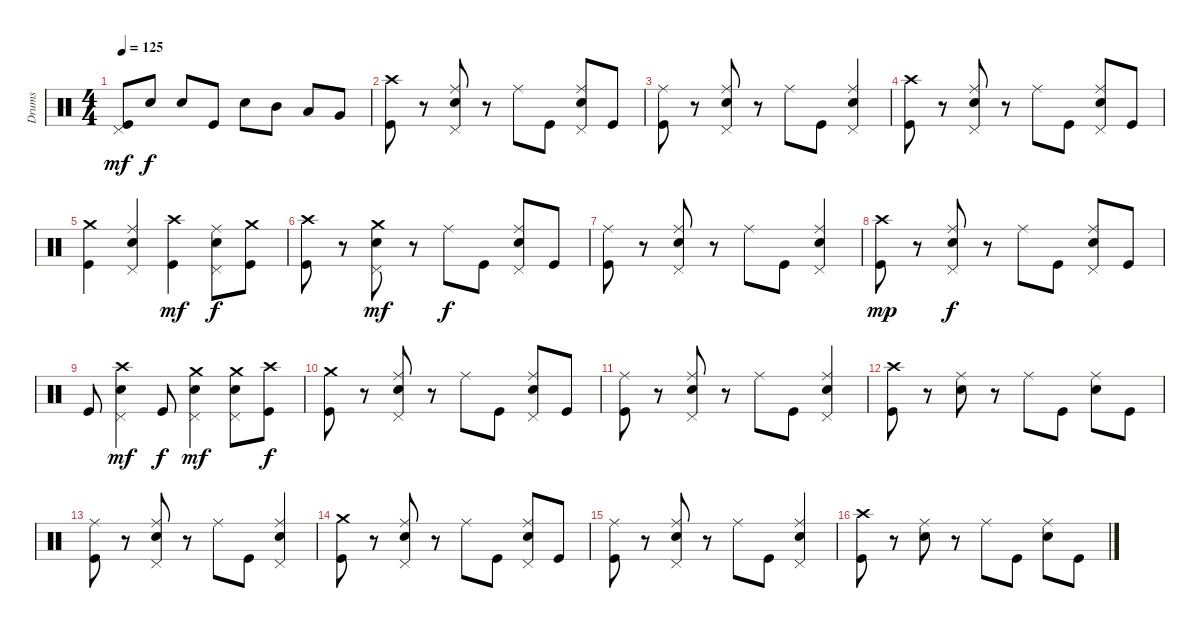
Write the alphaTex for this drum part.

\track ("Drums" "Drums") {instrument percussion}
\staff {score}
\articulation defaults
\ts (4 4)
\tempo 125
\clef neutral
\ks c
("Kick (hit)" "Pedal Hi-Hat (hit)").8{dy mf} "Snare (hit) 2".8{dy f} "Snare (hit) 2".8 "Kick (hit)".8 "Snare (hit) 2".8 "Mid Tom (hit)".8 "Low Tom (hit)".8 "Very Low Tom (hit)".8 |
("Crash high (hit)" "Kick (hit)").8 r.8 ("Snare (hit) 2" "Ride (middle)" "Pedal Hi-Hat (hit)").8 r.8 "Ride (middle)".8 "Kick (hit)".8 ("Snare (hit) 2" "Ride (middle)" "Pedal Hi-Hat (hit)").8 "Kick (hit)".8 |
("Kick (hit)" "Ride (middle)").8 r.8 ("Snare (hit) 2" "Ride (middle)" "Pedal Hi-Hat (hit)").8 r.8 "Ride (middle)".8 "Kick (hit)".8 ("Snare (hit) 2" "Ride (middle)" "Pedal Hi-Hat (hit)").4 |
("Crash high (hit)" "Kick (hit)").8 r.8 ("Snare (hit) 2" "Ride (middle)" "Pedal Hi-Hat (hit)").8 r.8 "Ride (middle)".8 "Kick (hit)".8 ("Snare (hit) 2" "Ride (middle)" "Pedal Hi-Hat (hit)").8 "Kick (hit)".8 |
("Kick (hit)" "Crash medium (hit)").4 ("Snare (hit) 2" "Pedal Hi-Hat (hit)" "Ride (middle)").4 ("Crash high (hit)" "Kick (hit)").4{dy mf} ("Snare (hit) 2" "Pedal Hi-Hat (hit)" "Ride (middle)").8{dy f} ("Crash medium (hit)" "Kick (hit)").8 |
("Crash high (hit)" "Kick (hit)").8 r.8 ("Snare (hit) 2" "Crash medium (hit)" "Pedal Hi-Hat (hit)").8{dy mf} r.8 "Ride (middle)".8{dy f} "Kick (hit)".8 ("Snare (hit) 2" "Ride (middle)" "Pedal Hi-Hat (hit)").8 "Kick (hit)".8 |
("Kick (hit)" "Ride (middle)").8 r.8 ("Snare (hit) 2" "Ride (middle)" "Pedal Hi-Hat (hit)").8 r.8 "Ride (middle)".8 "Kick (hit)".8 ("Snare (hit) 2" "Ride (middle)" "Pedal Hi-Hat (hit)").4 |
("Kick (hit)" "Crash high (hit)").8{dy mp} r.8 ("Snare (hit) 2" "Ride (middle)" "Pedal Hi-Hat (hit)").8{dy f} r.8 "Ride (middle)".8 "Kick (hit)".8 ("Snare (hit) 2" "Ride (middle)" "Pedal Hi-Hat (hit)").8 "Kick (hit)".8 |
"Kick (hit)".8 ("Snare (hit) 2" "Pedal Hi-Hat (hit)" "Crash high (hit)").4{dy mf} "Kick (hit)".8{dy f} ("Snare (hit) 2" "Pedal Hi-Hat (hit)" "Crash medium (hit)").4{dy mf} ("Snare (hit) 2" "Pedal Hi-Hat (hit)" "Crash medium (hit)").8 ("Kick (hit)" "Crash high (hit)").8{dy f} |
("Crash medium (hit)" "Kick (hit)").8 r.8 ("Snare (hit) 2" "Ride (middle)" "Pedal Hi-Hat (hit)").8 r.8 "Ride (middle)".8 "Kick (hit)".8 ("Snare (hit) 2" "Ride (middle)" "Pedal Hi-Hat (hit)").8 "Kick (hit)".8 |
("Kick (hit)" "Ride (middle)").8 r.8 ("Snare (hit) 2" "Ride (middle)" "Pedal Hi-Hat (hit)").8 r.8 "Ride (middle)".8 "Kick (hit)".8 ("Snare (hit) 2" "Ride (middle)" "Pedal Hi-Hat (hit)").4 |
("Crash high (hit)" "Kick (hit)").8 r.8 ("Snare (hit) 2" "Ride (middle)").8 r.8 "Ride (middle)".8 "Kick (hit)".8 ("Snare (hit) 2" "Ride (middle)").8 "Kick (hit)".8 |
("Kick (hit)" "Ride (middle)").8 r.8 ("Snare (hit) 2" "Ride (middle)" "Pedal Hi-Hat (hit)").8 r.8 "Ride (middle)".8 "Kick (hit)".8 ("Snare (hit) 2" "Ride (middle)" "Pedal Hi-Hat (hit)").4 |
("Crash medium (hit)" "Kick (hit)").8 r.8 ("Snare (hit) 2" "Ride (middle)" "Pedal Hi-Hat (hit)").8 r.8 "Ride (middle)".8 "Kick (hit)".8 ("Snare (hit) 2" "Ride (middle)" "Pedal Hi-Hat (hit)").8 "Kick (hit)".8 |
("Kick (hit)" "Ride (middle)").8 r.8 ("Snare (hit) 2" "Ride (middle)" "Pedal Hi-Hat (hit)").8 r.8 "Ride (middle)".8 "Kick (hit)".8 ("Snare (hit) 2" "Ride (middle)" "Pedal Hi-Hat (hit)").4 |
("Crash high (hit)" "Kick (hit)").8 r.8 ("Snare (hit) 2" "Ride (middle)").8 r.8 "Ride (middle)".8 "Kick (hit)".8 ("Snare (hit) 2" "Ride (middle)").8 "Kick (hit)".8
